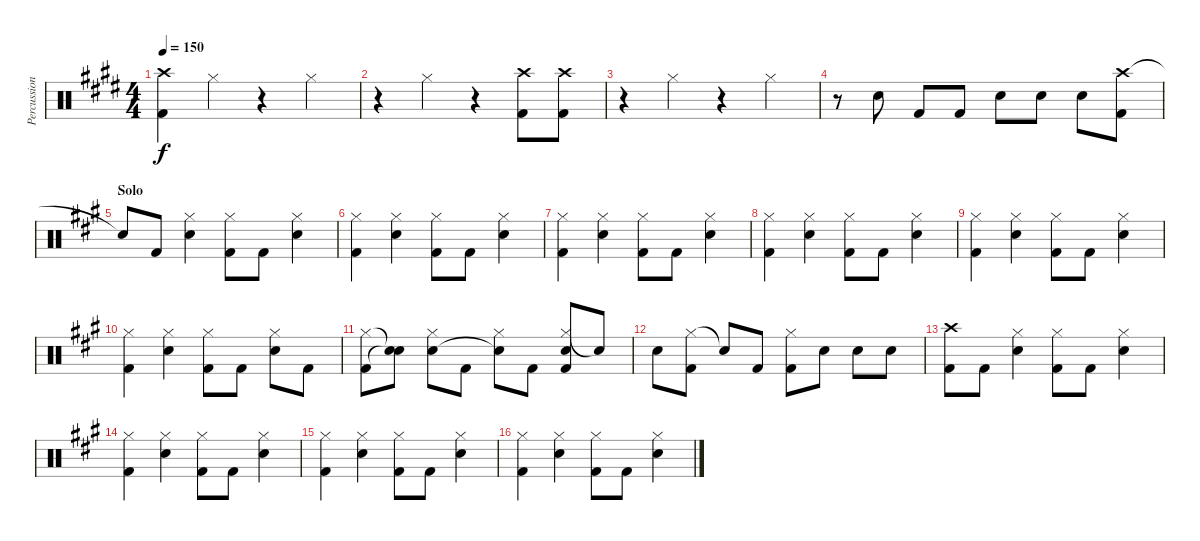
\track ("Percussion" "Percussion") {instrument percussion}
\staff {score}
\articulation defaults
\ts (4 4)
\tempo 150
\clef neutral
\ks c#minor
("Kick (hit) 2"{t} "Crash high (hit)"{t}).4{dy f} "Hi-Hat (closed)".4 r.4 "Hi-Hat (closed)".4 |
r.4 "Hi-Hat (closed)".4 r.4 ("Crash high (hit)" "Kick (hit) 2").8 ("Crash high (hit)" "Kick (hit) 2").8 |
r.4 "Hi-Hat (closed)".4 r.4 "Hi-Hat (closed)".4 |
r.8 "Snare (hit) 2".8 "Kick (hit) 2".8 "Kick (hit) 2".8 "Snare (hit) 2".8 "Snare (hit) 2".8 "Snare (hit) 2".8 ("Crash high (hit)" "Kick (hit) 2").8 |
\section ("" "Solo")
\ks f#minor "Snare (hit)"{t}.8 "Kick (hit) 2".8
("Hi-Hat (closed)" "Snare (hit) 2").4 ("Hi-Hat (closed)" "Kick (hit) 2").8 "Kick (hit) 2".8 ("Hi-Hat (closed)" "Snare (hit) 2").4 |
("Hi-Hat (closed)" "Kick (hit) 2").4 ("Hi-Hat (closed)" "Snare (hit) 2").4 ("Hi-Hat (closed)" "Kick (hit) 2").8 "Kick (hit) 2".8 ("Hi-Hat (closed)" "Snare (hit) 2").4 |
("Hi-Hat (closed)" "Kick (hit) 2").4 ("Hi-Hat (closed)" "Snare (hit) 2").4 ("Hi-Hat (closed)" "Kick (hit) 2").8 "Kick (hit) 2".8 ("Hi-Hat (closed)" "Snare (hit) 2").4 |
("Hi-Hat (closed)" "Kick (hit) 2").4 ("Hi-Hat (closed)" "Snare (hit) 2").4 ("Hi-Hat (closed)" "Kick (hit) 2").8 "Kick (hit) 2".8 ("Hi-Hat (closed)" "Snare (hit) 2").4 |
("Hi-Hat (closed)" "Kick (hit) 2").4 ("Hi-Hat (closed)" "Snare (hit) 2").4 ("Hi-Hat (closed)" "Kick (hit) 2").8 "Kick (hit) 2".8 ("Hi-Hat (closed)" "Snare (hit) 2").4 |
("Hi-Hat (closed)" "Kick (hit) 2").4 ("Hi-Hat (closed)" "Snare (hit) 2").4 ("Hi-Hat (closed)" "Kick (hit) 2").8 "Kick (hit) 2".8 ("Hi-Hat (closed)" "Snare (hit) 2").8 "Kick (hit) 2".8 |
("Hi-Hat (closed)" "Kick (hit) 2").8 ("Snare (hit)"{t} "Snare (hit)"{t}).8 ("Hi-Hat (closed)" "Snare (hit) 2").8 "Kick (hit) 2".8 ("Hi-Hat (closed)" "Snare (hit)"{t}).8 "Kick (hit) 2".8 ("Hi-Hat (closed)" "Snare (hit) 2" "Kick (hit) 2").8 "Snare (hit)"{t}.8 |
"Snare (hit) 2".8 ("Hi-Hat (closed)" "Kick (hit) 2").8 "Snare (hit)"{t}.8 "Kick (hit) 2".8 ("Hi-Hat (closed)" "Kick (hit) 2").8 "Snare (hit) 2".8 "Snare (hit) 2".8 "Snare (hit) 2".8 |
("Crash high (hit)" "Kick (hit) 2").8 "Kick (hit) 2".8 ("Hi-Hat (closed)" "Snare (hit) 2").4 ("Hi-Hat (closed)" "Kick (hit) 2").8 "Kick (hit) 2".8 ("Hi-Hat (closed)" "Snare (hit) 2").4 |
("Hi-Hat (closed)" "Kick (hit) 2").4 ("Hi-Hat (closed)" "Snare (hit) 2").4 ("Hi-Hat (closed)" "Kick (hit) 2").8 "Kick (hit) 2".8 ("Hi-Hat (closed)" "Snare (hit) 2").4 |
("Hi-Hat (closed)" "Kick (hit) 2").4 ("Hi-Hat (closed)" "Snare (hit) 2").4 ("Hi-Hat (closed)" "Kick (hit) 2").8 "Kick (hit) 2".8 ("Hi-Hat (closed)" "Snare (hit) 2").4 |
("Hi-Hat (closed)" "Kick (hit) 2").4 ("Hi-Hat (closed)" "Snare (hit) 2").4 ("Hi-Hat (closed)" "Kick (hit) 2").8 "Kick (hit) 2".8 ("Hi-Hat (closed)" "Snare (hit) 2").4
